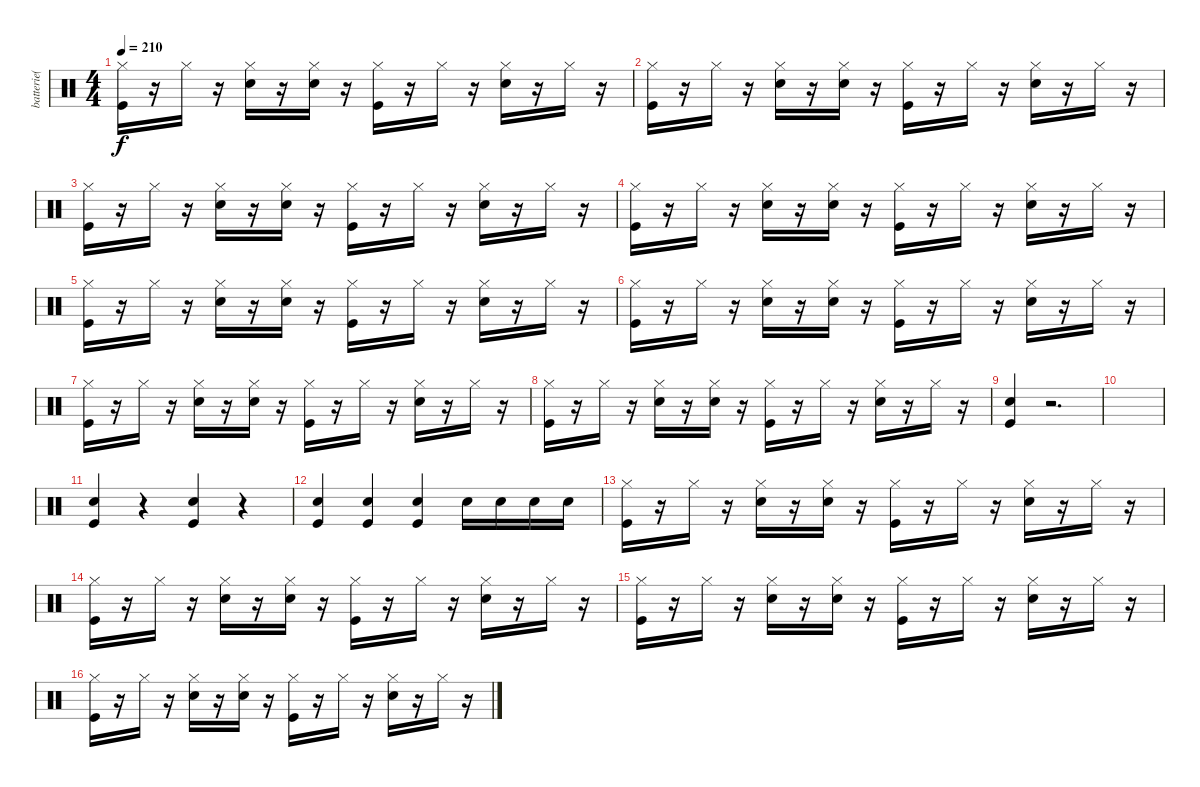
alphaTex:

\track ("batterie( Michael Davison )" "batterie( ") {instrument percussion}
\staff {score}
\articulation defaults
\ts (4 4)
\tempo 210
\clef neutral
\ks c
("Hi-Hat (closed)" "Kick (hit)").16{dy f} r.16 "Hi-Hat (closed)".16 r.16 ("Hi-Hat (closed)" "Snare (hit) 2").16 r.16 ("Hi-Hat (closed)" "Snare (hit) 2").16 r.16 ("Hi-Hat (closed)" "Kick (hit)").16 r.16 "Hi-Hat (closed)".16 r.16 ("Hi-Hat (closed)" "Snare (hit) 2").16 r.16 "Hi-Hat (closed)".16 r.16 |
("Hi-Hat (closed)" "Kick (hit)").16 r.16 "Hi-Hat (closed)".16 r.16 ("Hi-Hat (closed)" "Snare (hit) 2").16 r.16 ("Hi-Hat (closed)" "Snare (hit) 2").16 r.16 ("Hi-Hat (closed)" "Kick (hit)").16 r.16 "Hi-Hat (closed)".16 r.16 ("Hi-Hat (closed)" "Snare (hit) 2").16 r.16 "Hi-Hat (closed)".16 r.16 |
("Hi-Hat (closed)" "Kick (hit)").16 r.16 "Hi-Hat (closed)".16 r.16 ("Hi-Hat (closed)" "Snare (hit) 2").16 r.16 ("Hi-Hat (closed)" "Snare (hit) 2").16 r.16 ("Hi-Hat (closed)" "Kick (hit)").16 r.16 "Hi-Hat (closed)".16 r.16 ("Hi-Hat (closed)" "Snare (hit) 2").16 r.16 "Hi-Hat (closed)".16 r.16 |
("Hi-Hat (closed)" "Kick (hit)").16 r.16 "Hi-Hat (closed)".16 r.16 ("Hi-Hat (closed)" "Snare (hit) 2").16 r.16 ("Hi-Hat (closed)" "Snare (hit) 2").16 r.16 ("Hi-Hat (closed)" "Kick (hit)").16 r.16 "Hi-Hat (closed)".16 r.16 ("Hi-Hat (closed)" "Snare (hit) 2").16 r.16 "Hi-Hat (closed)".16 r.16 |
("Hi-Hat (closed)" "Kick (hit)").16 r.16 "Hi-Hat (closed)".16 r.16 ("Hi-Hat (closed)" "Snare (hit) 2").16 r.16 ("Hi-Hat (closed)" "Snare (hit) 2").16 r.16 ("Hi-Hat (closed)" "Kick (hit)").16 r.16 "Hi-Hat (closed)".16 r.16 ("Hi-Hat (closed)" "Snare (hit) 2").16 r.16 "Hi-Hat (closed)".16 r.16 |
("Hi-Hat (closed)" "Kick (hit)").16 r.16 "Hi-Hat (closed)".16 r.16 ("Hi-Hat (closed)" "Snare (hit) 2").16 r.16 ("Hi-Hat (closed)" "Snare (hit) 2").16 r.16 ("Hi-Hat (closed)" "Kick (hit)").16 r.16 "Hi-Hat (closed)".16 r.16 ("Hi-Hat (closed)" "Snare (hit) 2").16 r.16 "Hi-Hat (closed)".16 r.16 |
("Hi-Hat (closed)" "Kick (hit)").16 r.16 "Hi-Hat (closed)".16 r.16 ("Hi-Hat (closed)" "Snare (hit) 2").16 r.16 ("Hi-Hat (closed)" "Snare (hit) 2").16 r.16 ("Hi-Hat (closed)" "Kick (hit)").16 r.16 "Hi-Hat (closed)".16 r.16 ("Hi-Hat (closed)" "Snare (hit) 2").16 r.16 "Hi-Hat (closed)".16 r.16 |
("Hi-Hat (closed)" "Kick (hit)").16 r.16 "Hi-Hat (closed)".16 r.16 ("Hi-Hat (closed)" "Snare (hit) 2").16 r.16 ("Hi-Hat (closed)" "Snare (hit) 2").16 r.16 ("Hi-Hat (closed)" "Kick (hit)").16 r.16 "Hi-Hat (closed)".16 r.16 ("Hi-Hat (closed)" "Snare (hit) 2").16 r.16 "Hi-Hat (closed)".16 r.16 |
("Snare (hit) 2" "Kick (hit)").4 r.2{d} |
|
("Snare (hit) 2" "Kick (hit)").4 r.4 ("Snare (hit) 2" "Kick (hit)").4 r.4 |
("Snare (hit) 2" "Kick (hit)").4 ("Snare (hit) 2" "Kick (hit)").4 ("Snare (hit) 2" "Kick (hit)").4 "Snare (hit) 2".16 "Snare (hit) 2".16 "Snare (hit) 2".16 "Snare (hit) 2".16 |
("Hi-Hat (closed)" "Kick (hit)").16 r.16 "Hi-Hat (closed)".16 r.16 ("Hi-Hat (closed)" "Snare (hit) 2").16 r.16 ("Hi-Hat (closed)" "Snare (hit) 2").16 r.16 ("Hi-Hat (closed)" "Kick (hit)").16 r.16 "Hi-Hat (closed)".16 r.16 ("Hi-Hat (closed)" "Snare (hit) 2").16 r.16 "Hi-Hat (closed)".16 r.16 |
("Hi-Hat (closed)" "Kick (hit)").16 r.16 "Hi-Hat (closed)".16 r.16 ("Hi-Hat (closed)" "Snare (hit) 2").16 r.16 ("Hi-Hat (closed)" "Snare (hit) 2").16 r.16 ("Hi-Hat (closed)" "Kick (hit)").16 r.16 "Hi-Hat (closed)".16 r.16 ("Hi-Hat (closed)" "Snare (hit) 2").16 r.16 "Hi-Hat (closed)".16 r.16 |
("Hi-Hat (closed)" "Kick (hit)").16 r.16 "Hi-Hat (closed)".16 r.16 ("Hi-Hat (closed)" "Snare (hit) 2").16 r.16 ("Hi-Hat (closed)" "Snare (hit) 2").16 r.16 ("Hi-Hat (closed)" "Kick (hit)").16 r.16 "Hi-Hat (closed)".16 r.16 ("Hi-Hat (closed)" "Snare (hit) 2").16 r.16 "Hi-Hat (closed)".16 r.16 |
("Hi-Hat (closed)" "Kick (hit)").16 r.16 "Hi-Hat (closed)".16 r.16 ("Hi-Hat (closed)" "Snare (hit) 2").16 r.16 ("Hi-Hat (closed)" "Snare (hit) 2").16 r.16 ("Hi-Hat (closed)" "Kick (hit)").16 r.16 "Hi-Hat (closed)".16 r.16 ("Hi-Hat (closed)" "Snare (hit) 2").16 r.16 "Hi-Hat (closed)".16 r.16
